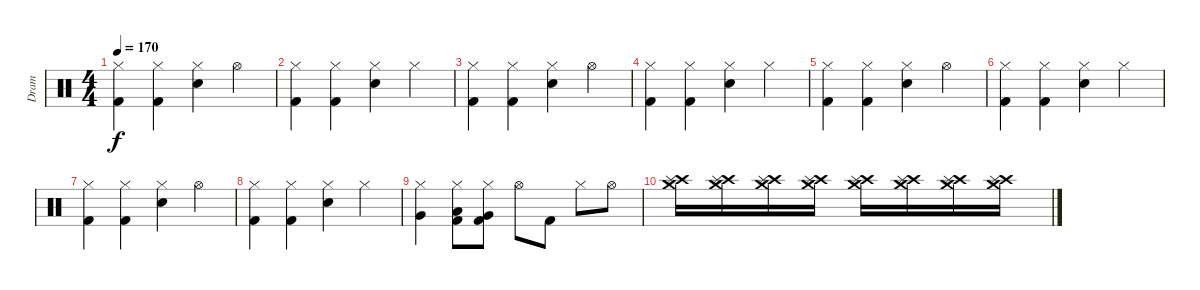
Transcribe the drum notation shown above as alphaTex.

\track ("Dram" "Dram") {instrument percussion}
\staff {score}
\articulation defaults
\ts (4 4)
\tempo 170
\clef neutral
\ks c
("Hi-Hat (closed)" "Kick (hit) 2").4{dy f} ("Hi-Hat (closed)" "Kick (hit) 2").4 ("Hi-Hat (closed)" "Electric Snare (hit)").4 "Hi-Hat (open)".4 |
("Hi-Hat (closed)" "Kick (hit) 2").4 ("Hi-Hat (closed)" "Kick (hit) 2").4 ("Hi-Hat (closed)" "Electric Snare (hit)").4 "Hi-Hat (closed)".4 |
("Hi-Hat (closed)" "Kick (hit) 2").4 ("Hi-Hat (closed)" "Kick (hit) 2").4 ("Hi-Hat (closed)" "Electric Snare (hit)").4 "Hi-Hat (open)".4 |
("Hi-Hat (closed)" "Kick (hit) 2").4 ("Hi-Hat (closed)" "Kick (hit) 2").4 ("Hi-Hat (closed)" "Electric Snare (hit)").4 "Hi-Hat (closed)".4 |
("Hi-Hat (closed)" "Kick (hit) 2").4 ("Hi-Hat (closed)" "Kick (hit) 2").4 ("Hi-Hat (closed)" "Electric Snare (hit)").4 "Hi-Hat (open)".4 |
("Hi-Hat (closed)" "Kick (hit) 2").4 ("Hi-Hat (closed)" "Kick (hit) 2").4 ("Hi-Hat (closed)" "Electric Snare (hit)").4 "Hi-Hat (closed)".4 |
("Hi-Hat (closed)" "Kick (hit) 2").4 ("Hi-Hat (closed)" "Kick (hit) 2").4 ("Hi-Hat (closed)" "Electric Snare (hit)").4 "Hi-Hat (open)".4 |
("Hi-Hat (closed)" "Kick (hit) 2").4 ("Hi-Hat (closed)" "Kick (hit) 2").4 ("Hi-Hat (closed)" "Electric Snare (hit)").4 "Hi-Hat (closed)".4 |
("Hi-Hat (closed)" "Very Low Tom (hit)").4 ("Hi-Hat (closed)" "Low Tom (hit)" "Kick (hit) 2").8 ("Hi-Hat (closed)" "Very Low Tom (hit)" "Kick (hit) 2").8 "Hi-Hat (open)".8 "Kick (hit) 2".8 "Hi-Hat (closed)".8 "Hi-Hat (open)".8 |
("Crash high (hit)" "Splash (hit)" "Crash medium (hit)").16 ("Crash medium (hit)" "Crash high (hit)" "Splash (hit)").16 ("Crash high (hit)" "Splash (hit)" "Crash medium (hit)").16 ("Crash medium (hit)" "Crash high (hit)" "Splash (hit)").16 ("Crash high (hit)" "Splash (hit)" "Crash medium (hit)").16 ("Crash medium (hit)" "Crash high (hit)" "Splash (hit)").16 ("Crash high (hit)" "Splash (hit)" "Crash medium (hit)").16 ("Crash medium (hit)" "Crash high (hit)" "Splash (hit)").16
